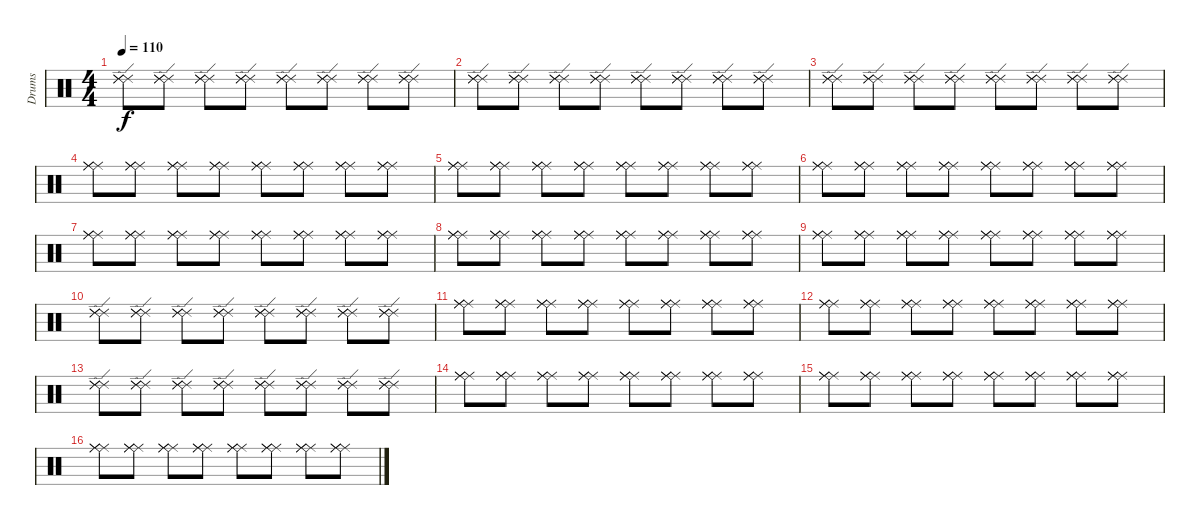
\track ("Drums" "Drums") {instrument percussion}
\staff {score}
\articulation defaults
\ts (4 4)
\tempo 110
\tempo 140
\tempo 110
\clef neutral
\ks c
("Ride (edge) 2" "Ride (edge) 2" "Ride (edge) 2").8{dy f} ("Ride (edge) 2" "Ride (edge) 2" "Ride (edge) 2").8 ("Ride (edge) 2" "Ride (edge) 2" "Ride (edge) 2").8 ("Ride (edge) 2" "Ride (edge) 2" "Ride (edge) 2").8 ("Ride (edge) 2" "Ride (edge) 2" "Ride (edge) 2").8 ("Ride (edge) 2" "Ride (edge) 2" "Ride (edge) 2").8 ("Ride (edge) 2" "Ride (edge) 2" "Ride (edge) 2").8 ("Ride (edge) 2" "Ride (edge) 2" "Ride (edge) 2").8 |
("Ride (edge) 2" "Ride (edge) 2" "Ride (edge) 2").8 ("Ride (edge) 2" "Ride (edge) 2" "Ride (edge) 2").8 ("Ride (edge) 2" "Ride (edge) 2" "Ride (edge) 2").8 ("Ride (edge) 2" "Ride (edge) 2" "Ride (edge) 2").8 ("Ride (edge) 2" "Ride (edge) 2" "Ride (edge) 2").8 ("Ride (edge) 2" "Ride (edge) 2" "Ride (edge) 2").8 ("Ride (edge) 2" "Ride (edge) 2" "Ride (edge) 2").8 ("Ride (edge) 2" "Ride (edge) 2" "Ride (edge) 2").8 |
("Ride (edge) 2" "Ride (edge) 2" "Ride (edge) 2").8 ("Ride (edge) 2" "Ride (edge) 2" "Ride (edge) 2").8 ("Ride (edge) 2" "Ride (edge) 2" "Ride (edge) 2").8 ("Ride (edge) 2" "Ride (edge) 2" "Ride (edge) 2").8 ("Ride (edge) 2" "Ride (edge) 2" "Ride (edge) 2").8 ("Ride (edge) 2" "Ride (edge) 2" "Ride (edge) 2").8 ("Ride (edge) 2" "Ride (edge) 2" "Ride (edge) 2").8 ("Ride (edge) 2" "Ride (edge) 2" "Ride (edge) 2").8 |
("Ride (middle)" "Ride (middle)" "Ride (middle)").8 ("Ride (middle)" "Ride (middle)" "Ride (middle)").8 ("Ride (middle)" "Ride (middle)" "Ride (middle)").8 ("Ride (middle)" "Ride (middle)" "Ride (middle)").8 ("Ride (middle)" "Ride (middle)" "Ride (middle)").8 ("Ride (middle)" "Ride (middle)" "Ride (middle)").8 ("Ride (middle)" "Ride (middle)" "Ride (middle)").8 ("Ride (middle)" "Ride (middle)" "Ride (middle)").8 |
("Ride (middle)" "Ride (middle)" "Ride (middle)").8 ("Ride (middle)" "Ride (middle)" "Ride (middle)").8 ("Ride (middle)" "Ride (middle)" "Ride (middle)").8 ("Ride (middle)" "Ride (middle)" "Ride (middle)").8 ("Ride (middle)" "Ride (middle)" "Ride (middle)").8 ("Ride (middle)" "Ride (middle)" "Ride (middle)").8 ("Ride (middle)" "Ride (middle)" "Ride (middle)").8 ("Ride (middle)" "Ride (middle)" "Ride (middle)").8 |
("Ride (middle)" "Ride (middle)" "Ride (middle)").8 ("Ride (middle)" "Ride (middle)" "Ride (middle)").8 ("Ride (middle)" "Ride (middle)" "Ride (middle)").8 ("Ride (middle)" "Ride (middle)" "Ride (middle)").8 ("Ride (middle)" "Ride (middle)" "Ride (middle)").8 ("Ride (middle)" "Ride (middle)" "Ride (middle)").8 ("Ride (middle)" "Ride (middle)" "Ride (middle)").8 ("Ride (middle)" "Ride (middle)" "Ride (middle)").8 |
("Ride (middle)" "Ride (middle)" "Ride (middle)").8 ("Ride (middle)" "Ride (middle)" "Ride (middle)").8 ("Ride (middle)" "Ride (middle)" "Ride (middle)").8 ("Ride (middle)" "Ride (middle)" "Ride (middle)").8 ("Ride (middle)" "Ride (middle)" "Ride (middle)").8 ("Ride (middle)" "Ride (middle)" "Ride (middle)").8 ("Ride (middle)" "Ride (middle)" "Ride (middle)").8 ("Ride (middle)" "Ride (middle)" "Ride (middle)").8 |
("Ride (middle)" "Ride (middle)" "Ride (middle)").8 ("Ride (middle)" "Ride (middle)" "Ride (middle)").8 ("Ride (middle)" "Ride (middle)" "Ride (middle)").8 ("Ride (middle)" "Ride (middle)" "Ride (middle)").8 ("Ride (middle)" "Ride (middle)" "Ride (middle)").8 ("Ride (middle)" "Ride (middle)" "Ride (middle)").8 ("Ride (middle)" "Ride (middle)" "Ride (middle)").8 ("Ride (middle)" "Ride (middle)" "Ride (middle)").8 |
("Ride (middle)" "Ride (middle)" "Ride (middle)").8 ("Ride (middle)" "Ride (middle)" "Ride (middle)").8 ("Ride (middle)" "Ride (middle)" "Ride (middle)").8 ("Ride (middle)" "Ride (middle)" "Ride (middle)").8 ("Ride (middle)" "Ride (middle)" "Ride (middle)").8 ("Ride (middle)" "Ride (middle)" "Ride (middle)").8 ("Ride (middle)" "Ride (middle)" "Ride (middle)").8 ("Ride (middle)" "Ride (middle)" "Ride (middle)").8 |
("Ride (edge) 2" "Ride (edge) 2" "Ride (edge) 2").8 ("Ride (edge) 2" "Ride (edge) 2" "Ride (edge) 2").8 ("Ride (edge) 2" "Ride (edge) 2" "Ride (edge) 2").8 ("Ride (edge) 2" "Ride (edge) 2" "Ride (edge) 2").8 ("Ride (edge) 2" "Ride (edge) 2" "Ride (edge) 2").8 ("Ride (edge) 2" "Ride (edge) 2" "Ride (edge) 2").8 ("Ride (edge) 2" "Ride (edge) 2" "Ride (edge) 2").8 ("Ride (edge) 2" "Ride (edge) 2" "Ride (edge) 2").8 |
("Ride (middle)" "Ride (middle)" "Ride (middle)").8 ("Ride (middle)" "Ride (middle)" "Ride (middle)").8 ("Ride (middle)" "Ride (middle)" "Ride (middle)").8 ("Ride (middle)" "Ride (middle)" "Ride (middle)").8 ("Ride (middle)" "Ride (middle)" "Ride (middle)").8 ("Ride (middle)" "Ride (middle)" "Ride (middle)").8 ("Ride (middle)" "Ride (middle)" "Ride (middle)").8 ("Ride (middle)" "Ride (middle)" "Ride (middle)").8 |
("Ride (middle)" "Ride (middle)" "Ride (middle)").8 ("Ride (middle)" "Ride (middle)" "Ride (middle)").8 ("Ride (middle)" "Ride (middle)" "Ride (middle)").8 ("Ride (middle)" "Ride (middle)" "Ride (middle)").8 ("Ride (middle)" "Ride (middle)" "Ride (middle)").8 ("Ride (middle)" "Ride (middle)" "Ride (middle)").8 ("Ride (middle)" "Ride (middle)" "Ride (middle)").8 ("Ride (middle)" "Ride (middle)" "Ride (middle)").8 |
("Ride (edge) 2" "Ride (edge) 2" "Ride (edge) 2").8 ("Ride (edge) 2" "Ride (edge) 2" "Ride (edge) 2").8 ("Ride (edge) 2" "Ride (edge) 2" "Ride (edge) 2").8 ("Ride (edge) 2" "Ride (edge) 2" "Ride (edge) 2").8 ("Ride (edge) 2" "Ride (edge) 2" "Ride (edge) 2").8 ("Ride (edge) 2" "Ride (edge) 2" "Ride (edge) 2").8 ("Ride (edge) 2" "Ride (edge) 2" "Ride (edge) 2").8 ("Ride (edge) 2" "Ride (edge) 2" "Ride (edge) 2").8 |
("Ride (middle)" "Ride (middle)" "Ride (middle)").8 ("Ride (middle)" "Ride (middle)" "Ride (middle)").8 ("Ride (middle)" "Ride (middle)" "Ride (middle)").8 ("Ride (middle)" "Ride (middle)" "Ride (middle)").8 ("Ride (middle)" "Ride (middle)" "Ride (middle)").8 ("Ride (middle)" "Ride (middle)" "Ride (middle)").8 ("Ride (middle)" "Ride (middle)" "Ride (middle)").8 ("Ride (middle)" "Ride (middle)" "Ride (middle)").8 |
("Ride (middle)" "Ride (middle)" "Ride (middle)").8 ("Ride (middle)" "Ride (middle)" "Ride (middle)").8 ("Ride (middle)" "Ride (middle)" "Ride (middle)").8 ("Ride (middle)" "Ride (middle)" "Ride (middle)").8 ("Ride (middle)" "Ride (middle)" "Ride (middle)").8 ("Ride (middle)" "Ride (middle)" "Ride (middle)").8 ("Ride (middle)" "Ride (middle)" "Ride (middle)").8 ("Ride (middle)" "Ride (middle)" "Ride (middle)").8 |
("Ride (middle)" "Ride (middle)" "Ride (middle)").8 ("Ride (middle)" "Ride (middle)" "Ride (middle)").8 ("Ride (middle)" "Ride (middle)" "Ride (middle)").8 ("Ride (middle)" "Ride (middle)" "Ride (middle)").8 ("Ride (middle)" "Ride (middle)" "Ride (middle)").8 ("Ride (middle)" "Ride (middle)" "Ride (middle)").8 ("Ride (middle)" "Ride (middle)" "Ride (middle)").8 ("Ride (middle)" "Ride (middle)" "Ride (middle)").8
